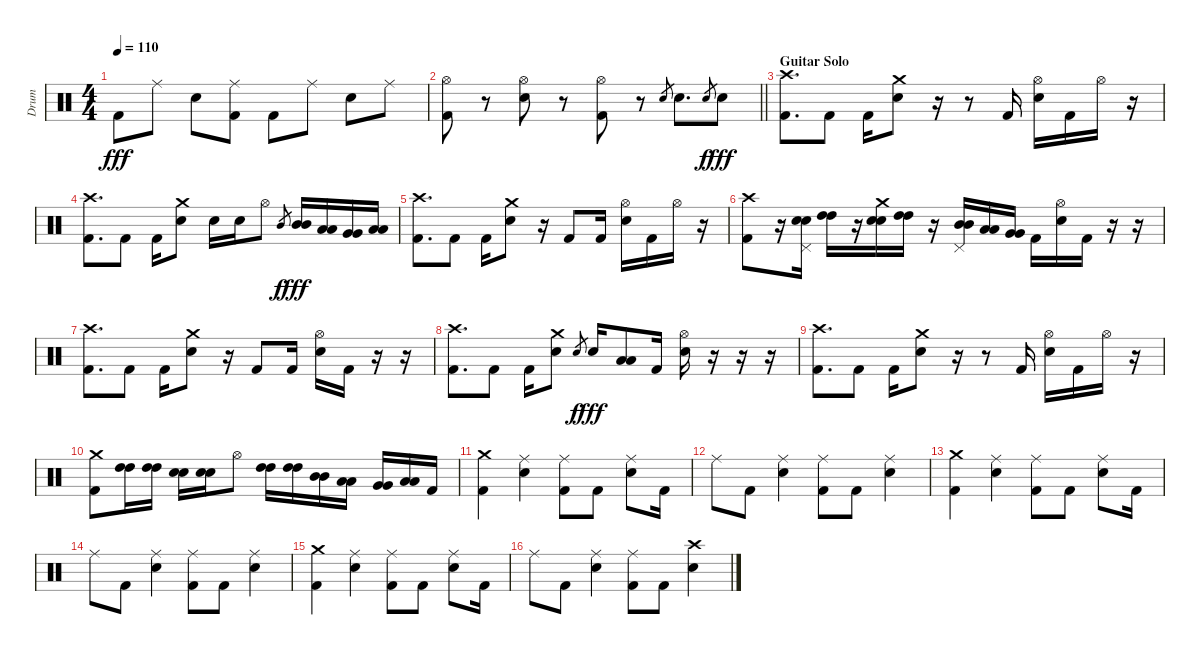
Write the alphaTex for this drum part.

\track ("Drum" "Drum") {instrument percussion}
\staff {score}
\articulation defaults
\ts (4 4)
\tempo 110
\clef neutral
\ks c "Kick (hit) 2".8{dy fff} "Ride (middle)".8 "Electric Snare (hit)".8
("Ride (middle)" "Kick (hit) 2").8 "Kick (hit) 2".8 "Ride (middle)".8 "Electric Snare (hit)".8 "Ride (middle)".8 |
\barLineRight lightlight
("Hi-Hat (open)" "Kick (hit) 2").8 r.8 ("Hi-Hat (open)" "Electric Snare (hit)").8 r.8 ("Hi-Hat (open)" "Kick (hit) 2").8 r.8 "Electric Snare (hit)".8{gr} "Electric Snare (hit)".8{d} "Electric Snare (hit)".8{gr dy f} "Electric Snare (hit)".8{dy fff} |
\section ("" "Guitar Solo")
("Crash high (hit)" "Kick (hit) 2").8{d} "Kick (hit) 2".8 "Kick (hit) 2".16 ("Crash medium (hit)" "Electric Snare (hit)").8 r.16 r.8 "Kick (hit) 2".16 ("Hi-Hat (open)" "Electric Snare (hit)").16 "Kick (hit) 2".16 "Hi-Hat (open)".16 r.16 |
("Crash high (hit)" "Kick (hit) 2").8{d} "Kick (hit) 2".8 "Kick (hit) 2".16 ("Crash medium (hit)" "Electric Snare (hit)").8 "Electric Snare (hit)".16 "Electric Snare (hit)".16 "Hi-Hat (open)".8 "Mid Tom (hit)".8{gr dy f} ("Mid Tom (hit)" "Mid Tom (hit)").16{dy fff} ("Low Tom (hit)" "Low Tom (hit)").16 ("Very Low Tom (hit)" "Very Low Tom (hit)").16 ("Low Floor Tom (hit)" "Low Floor Tom (hit)").16 |
("Crash high (hit)" "Kick (hit) 2").8{d} "Kick (hit) 2".8 "Kick (hit) 2".16 ("Crash medium (hit)" "Electric Snare (hit)").8 r.16 "Kick (hit) 2".8 "Kick (hit) 2".16 ("Hi-Hat (open)" "Electric Snare (hit)").16 "Kick (hit) 2".16 "Hi-Hat (open)".16 r.16 |
("Crash high (hit)" "Kick (hit) 2").8 r.16 ("Pedal Hi-Hat (hit)" "Electric Snare (hit)" "Electric Snare (hit)").16 ("High Tom (hit)" "High Tom (hit)").16 r.16 ("Crash medium (hit)" "Electric Snare (hit)" "Electric Snare (hit)").16 ("High Tom (hit)" "High Tom (hit)").16 r.16 ("Pedal Hi-Hat (hit)" "Mid Tom (hit)" "Mid Tom (hit)").16 ("Low Tom (hit)" "Low Tom (hit)").16 ("Very Low Tom (hit)" "Very Low Tom (hit)").16 "Kick (hit) 2".16 ("Hi-Hat (open)" "Electric Snare (hit)").16 "Kick (hit) 2".16 r.16 r.16 |
("Crash high (hit)" "Kick (hit) 2").8{d} "Kick (hit) 2".8 "Kick (hit) 2".16 ("Crash medium (hit)" "Electric Snare (hit)").8 r.16 "Kick (hit) 2".8 "Kick (hit) 2".16 ("Hi-Hat (open)" "Electric Snare (hit)").16 "Kick (hit) 2".16 r.16 r.16 |
("Crash high (hit)" "Kick (hit) 2").8{d} "Kick (hit) 2".8 "Kick (hit) 2".16 ("Crash medium (hit)" "Electric Snare (hit)").8 "Electric Snare (hit)".8{gr dy f} "Electric Snare (hit)".16{dy fff} ("Low Tom (hit)" "Low Tom (hit)").8 "Kick (hit) 2".16 ("Hi-Hat (open)" "Electric Snare (hit)").16 r.16 r.16 r.16 |
("Crash high (hit)" "Kick (hit) 2").8{d} "Kick (hit) 2".8 "Kick (hit) 2".16 ("Crash medium (hit)" "Electric Snare (hit)").8 r.16 r.8 "Kick (hit) 2".16 ("Hi-Hat (open)" "Electric Snare (hit)").16 "Kick (hit) 2".16 "Hi-Hat (open)".16 r.16 |
("Crash medium (hit)" "Kick (hit) 2").8 ("High Tom (hit)" "High Tom (hit)").16 ("High Tom (hit)" "High Tom (hit)").16 ("Electric Snare (hit)" "Electric Snare (hit)").16 ("Electric Snare (hit)" "Electric Snare (hit)").16 "Hi-Hat (open)".8 ("High Tom (hit)" "High Tom (hit)").16 ("High Tom (hit)" "High Tom (hit)").16 ("Mid Tom (hit)" "Mid Tom (hit)").16 ("Low Tom (hit)" "Low Tom (hit)").16 ("Very Low Tom (hit)" "Very Low Tom (hit)").16 ("Low Floor Tom (hit)" "Low Floor Tom (hit)").16 "Kick (hit) 2".16 |
("Crash medium (hit)" "Kick (hit) 2").4 ("Ride (middle)" "Electric Snare (hit)").4 ("Ride (middle)" "Kick (hit) 2").8 "Kick (hit) 2".8 ("Ride (middle)" "Electric Snare (hit)").8 "Kick (hit) 2".16 |
"Ride (middle)".8 "Kick (hit) 2".8 ("Ride (middle)" "Electric Snare (hit)").4 ("Ride (middle)" "Kick (hit) 2").8 "Kick (hit) 2".8 ("Ride (middle)" "Electric Snare (hit)").4 |
("Crash medium (hit)" "Kick (hit) 2").4 ("Ride (middle)" "Electric Snare (hit)").4 ("Ride (middle)" "Kick (hit) 2").8 "Kick (hit) 2".8 ("Ride (middle)" "Electric Snare (hit)").8 "Kick (hit) 2".16 |
"Ride (middle)".8 "Kick (hit) 2".8 ("Ride (middle)" "Electric Snare (hit)").4 ("Ride (middle)" "Kick (hit) 2").8 "Kick (hit) 2".8 ("Ride (middle)" "Electric Snare (hit)").4 |
("Crash medium (hit)" "Kick (hit) 2").4 ("Ride (middle)" "Electric Snare (hit)").4 ("Ride (middle)" "Kick (hit) 2").8 "Kick (hit) 2".8 ("Ride (middle)" "Electric Snare (hit)").8 "Kick (hit) 2".16 |
"Ride (middle)".8 "Kick (hit) 2".8 ("Ride (middle)" "Electric Snare (hit)").4 ("Ride (middle)" "Kick (hit) 2").8 "Kick (hit) 2".8 ("Crash high (hit)" "Electric Snare (hit)").4
